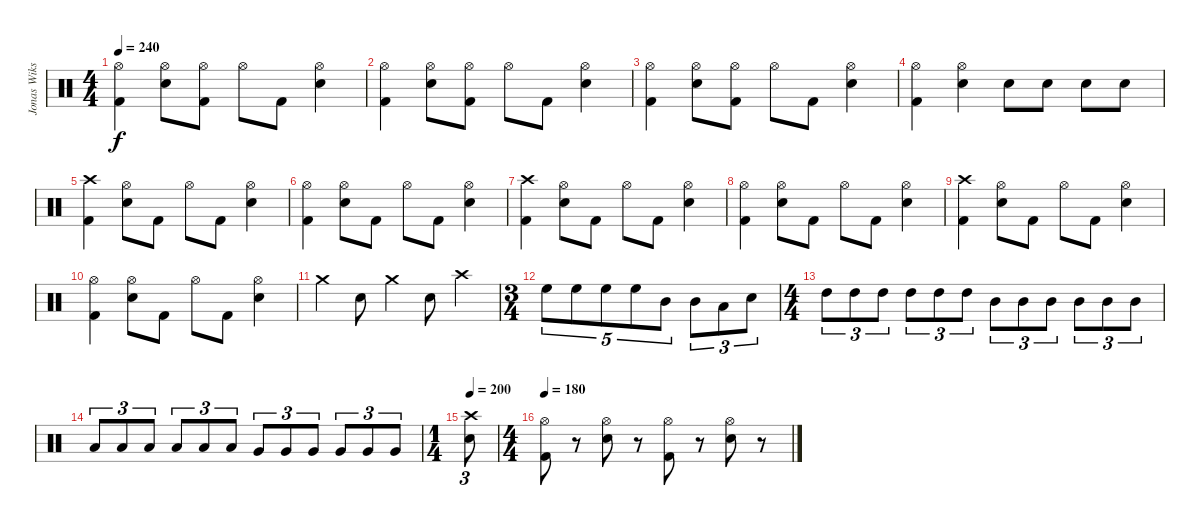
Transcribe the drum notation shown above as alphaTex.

\track ("Jonas Wikstrand" "Jonas Wiks") {instrument percussion}
\staff {score}
\articulation defaults
\ts (4 4)
\tempo 240
\clef neutral
\ks c
("Hi-Hat (open)" "Kick (hit) 2").4{dy f} ("Hi-Hat (open)" "Snare (hit) 2").8 ("Hi-Hat (open)" "Kick (hit) 2").8 "Hi-Hat (open)".8 "Kick (hit) 2".8 ("Hi-Hat (open)" "Snare (hit) 2").4 |
("Hi-Hat (open)" "Kick (hit) 2").4 ("Hi-Hat (open)" "Snare (hit) 2").8 ("Hi-Hat (open)" "Kick (hit) 2").8 "Hi-Hat (open)".8 "Kick (hit) 2".8 ("Hi-Hat (open)" "Snare (hit) 2").4 |
("Hi-Hat (open)" "Kick (hit) 2").4 ("Hi-Hat (open)" "Snare (hit) 2").8 ("Hi-Hat (open)" "Kick (hit) 2").8 "Hi-Hat (open)".8 "Kick (hit) 2".8 ("Hi-Hat (open)" "Snare (hit) 2").4 |
("Hi-Hat (open)" "Kick (hit) 2").4 ("Hi-Hat (open)" "Snare (hit) 2").4 "Snare (hit) 2".8 "Snare (hit) 2".8 "Snare (hit) 2".8 "Snare (hit) 2".8 |
("Crash high (hit)" "Kick (hit) 2").4 ("Hi-Hat (open)" "Snare (hit) 2").8 "Kick (hit) 2".8 "Hi-Hat (open)".8 "Kick (hit) 2".8 ("Hi-Hat (open)" "Snare (hit) 2").4 |
("Hi-Hat (open)" "Kick (hit) 2").4 ("Hi-Hat (open)" "Snare (hit) 2").8 "Kick (hit) 2".8 "Hi-Hat (open)".8 "Kick (hit) 2".8 ("Hi-Hat (open)" "Snare (hit) 2").4 |
("Crash high (hit)" "Kick (hit) 2").4 ("Hi-Hat (open)" "Snare (hit) 2").8 "Kick (hit) 2".8 "Hi-Hat (open)".8 "Kick (hit) 2".8 ("Hi-Hat (open)" "Snare (hit) 2").4 |
("Hi-Hat (open)" "Kick (hit) 2").4 ("Hi-Hat (open)" "Snare (hit) 2").8 "Kick (hit) 2".8 "Hi-Hat (open)".8 "Kick (hit) 2".8 ("Hi-Hat (open)" "Snare (hit) 2").4 |
("Crash high (hit)" "Kick (hit) 2").4 ("Hi-Hat (open)" "Snare (hit) 2").8 "Kick (hit) 2".8 "Hi-Hat (open)".8 "Kick (hit) 2".8 ("Hi-Hat (open)" "Snare (hit) 2").4 |
("Hi-Hat (open)" "Kick (hit) 2").4 ("Hi-Hat (open)" "Snare (hit) 2").8 "Kick (hit) 2".8 "Hi-Hat (open)".8 "Kick (hit) 2".8 ("Hi-Hat (open)" "Snare (hit) 2").4 |
"Crash medium (hit)".4 "Snare (hit) 2".8 "Crash medium (hit)".4 "Snare (hit) 2".8 "Crash high (hit)".4 |
\ts (3 4)
"High Floor Tom (hit)".8{tu (5 4)} "High Floor Tom (hit)".8{tu (5 4)} "High Floor Tom (hit)".8{tu (5 4)} "High Floor Tom (hit)".8{tu (5 4)} "Mid Tom (hit)".8{tu (5 4)} "Mid Tom (hit)".8{tu (3 2)} "Low Floor Tom (hit)".8{tu (3 2)} "Snare (hit) 2".8{tu (3 2)} |
\ts (4 4)
"High Tom (hit)".8{tu (3 2)} "High Tom (hit)".8{tu (3 2)} "High Tom (hit)".8{tu (3 2)} "High Tom (hit)".8{tu (3 2)} "High Tom (hit)".8{tu (3 2)} "High Tom (hit)".8{tu (3 2)} "Mid Tom (hit)".8{tu (3 2)} "Mid Tom (hit)".8{tu (3 2)} "Mid Tom (hit)".8{tu (3 2)} "Mid Tom (hit)".8{tu (3 2)} "Mid Tom (hit)".8{tu (3 2)} "Mid Tom (hit)".8{tu (3 2)} |
"Low Tom (hit)".8{tu (3 2)} "Low Tom (hit)".8{tu (3 2)} "Low Tom (hit)".8{tu (3 2)} "Low Tom (hit)".8{tu (3 2)} "Low Tom (hit)".8{tu (3 2)} "Low Tom (hit)".8{tu (3 2)} "Very Low Tom (hit)".8{tu (3 2)} "Very Low Tom (hit)".8{tu (3 2)} "Very Low Tom (hit)".8{tu (3 2)} "Very Low Tom (hit)".8{tu (3 2)} "Very Low Tom (hit)".8{tu (3 2)} "Very Low Tom (hit)".8{tu (3 2)} |
\ts (1 4)
\tempo 200
("Crash high (hit)" "Snare (hit) 2").8{tu (3 2)} |
\ts (4 4)
\tempo 180
("Hi-Hat (open)" "Kick (hit) 2").8 r.8 ("Hi-Hat (open)" "Snare (hit) 2").8 r.8 ("Hi-Hat (open)" "Kick (hit) 2").8 r.8 ("Hi-Hat (open)" "Snare (hit) 2").8 r.8
